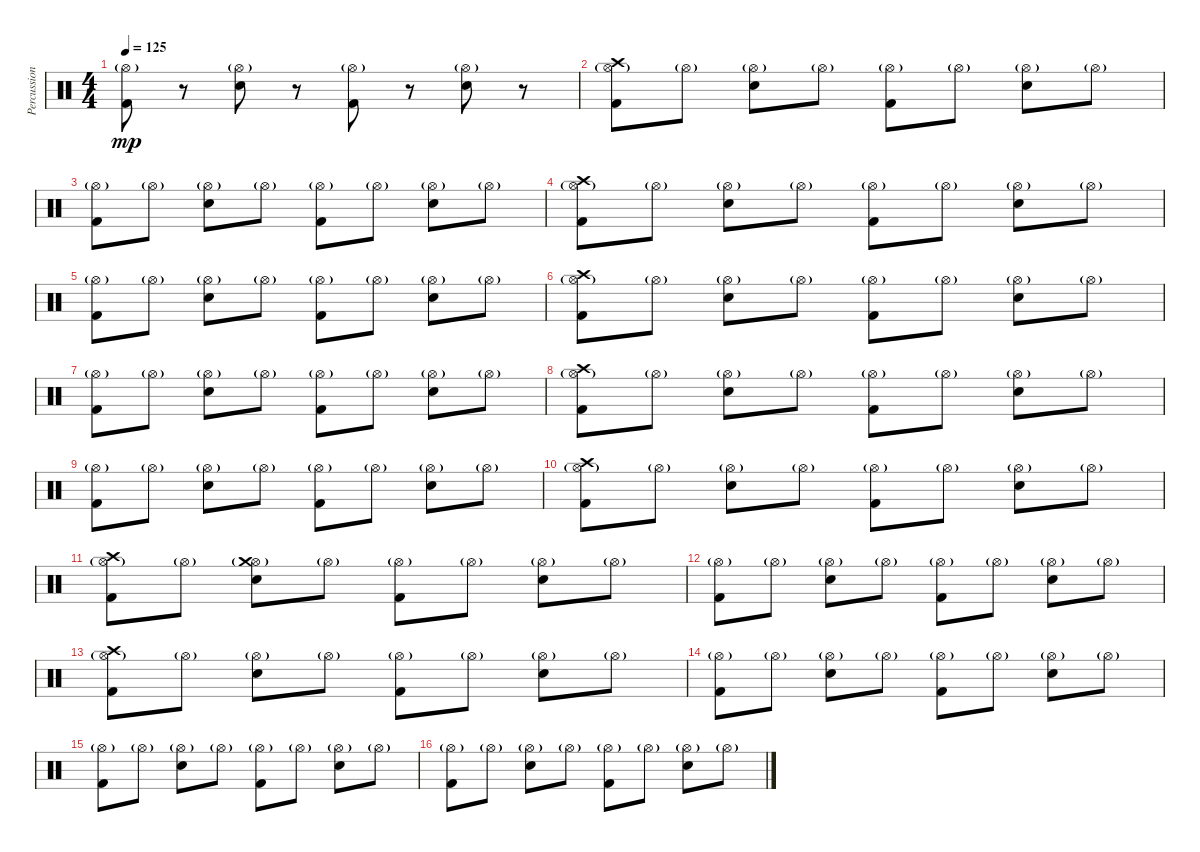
\track ("Percussions" "Percussion") {instrument percussion}
\staff {score}
\articulation defaults
\ts (4 4)
\tempo 125
\clef neutral
\ks c
("Hi-Hat (open)"{g} "Kick (hit) 2").8{dy mp} r.8 ("Hi-Hat (open)"{g} "Snare (hit) 2").8 r.8 ("Hi-Hat (open)"{g} "Kick (hit) 2").8 r.8 ("Hi-Hat (open)"{g} "Snare (hit) 2").8 r.8 |
("Hi-Hat (open)"{g} "Crash high (hit)" "Kick (hit) 2").8 "Hi-Hat (open)"{g}.8 ("Hi-Hat (open)"{g} "Snare (hit) 2").8 "Hi-Hat (open)"{g}.8 ("Hi-Hat (open)"{g} "Kick (hit) 2").8 "Hi-Hat (open)"{g}.8 ("Hi-Hat (open)"{g} "Snare (hit) 2").8 "Hi-Hat (open)"{g}.8 |
("Hi-Hat (open)"{g} "Kick (hit) 2").8 "Hi-Hat (open)"{g}.8 ("Hi-Hat (open)"{g} "Snare (hit) 2").8 "Hi-Hat (open)"{g}.8 ("Hi-Hat (open)"{g} "Kick (hit) 2").8 "Hi-Hat (open)"{g}.8 ("Hi-Hat (open)"{g} "Snare (hit) 2").8 "Hi-Hat (open)"{g}.8 |
("Hi-Hat (open)"{g} "Crash high (hit)" "Kick (hit) 2").8 "Hi-Hat (open)"{g}.8 ("Hi-Hat (open)"{g} "Snare (hit) 2").8 "Hi-Hat (open)"{g}.8 ("Hi-Hat (open)"{g} "Kick (hit) 2").8 "Hi-Hat (open)"{g}.8 ("Hi-Hat (open)"{g} "Snare (hit) 2").8 "Hi-Hat (open)"{g}.8 |
("Hi-Hat (open)"{g} "Kick (hit) 2").8 "Hi-Hat (open)"{g}.8 ("Hi-Hat (open)"{g} "Snare (hit) 2").8 "Hi-Hat (open)"{g}.8 ("Hi-Hat (open)"{g} "Kick (hit) 2").8 "Hi-Hat (open)"{g}.8 ("Hi-Hat (open)"{g} "Snare (hit) 2").8 "Hi-Hat (open)"{g}.8 |
("Hi-Hat (open)"{g} "Crash high (hit)" "Kick (hit) 2").8 "Hi-Hat (open)"{g}.8 ("Hi-Hat (open)"{g} "Snare (hit) 2").8 "Hi-Hat (open)"{g}.8 ("Hi-Hat (open)"{g} "Kick (hit) 2").8 "Hi-Hat (open)"{g}.8 ("Hi-Hat (open)"{g} "Snare (hit) 2").8 "Hi-Hat (open)"{g}.8 |
("Hi-Hat (open)"{g} "Kick (hit) 2").8 "Hi-Hat (open)"{g}.8 ("Hi-Hat (open)"{g} "Snare (hit) 2").8 "Hi-Hat (open)"{g}.8 ("Hi-Hat (open)"{g} "Kick (hit) 2").8 "Hi-Hat (open)"{g}.8 ("Hi-Hat (open)"{g} "Snare (hit) 2").8 "Hi-Hat (open)"{g}.8 |
("Hi-Hat (open)"{g} "Crash high (hit)" "Kick (hit) 2").8 "Hi-Hat (open)"{g}.8 ("Hi-Hat (open)"{g} "Snare (hit) 2").8 "Hi-Hat (open)"{g}.8 ("Hi-Hat (open)"{g} "Kick (hit) 2").8 "Hi-Hat (open)"{g}.8 ("Hi-Hat (open)"{g} "Snare (hit) 2").8 "Hi-Hat (open)"{g}.8 |
("Hi-Hat (open)"{g} "Kick (hit) 2").8 "Hi-Hat (open)"{g}.8 ("Hi-Hat (open)"{g} "Snare (hit) 2").8 "Hi-Hat (open)"{g}.8 ("Hi-Hat (open)"{g} "Kick (hit) 2").8 "Hi-Hat (open)"{g}.8 ("Hi-Hat (open)"{g} "Snare (hit) 2").8 "Hi-Hat (open)"{g}.8 |
("Hi-Hat (open)"{g} "Crash high (hit)" "Kick (hit) 2").8 "Hi-Hat (open)"{g}.8 ("Hi-Hat (open)"{g} "Snare (hit) 2").8 "Hi-Hat (open)"{g}.8 ("Hi-Hat (open)"{g} "Kick (hit) 2").8 "Hi-Hat (open)"{g}.8 ("Hi-Hat (open)"{g} "Snare (hit) 2").8 "Hi-Hat (open)"{g}.8 |
("Hi-Hat (open)"{g} "Crash high (hit)" "Kick (hit) 2").8 "Hi-Hat (open)"{g}.8 ("Hi-Hat (open)"{g} "Crash medium (hit)" "Snare (hit) 2").8 "Hi-Hat (open)"{g}.8 ("Hi-Hat (open)"{g} "Kick (hit) 2").8 "Hi-Hat (open)"{g}.8 ("Hi-Hat (open)"{g} "Snare (hit) 2").8 "Hi-Hat (open)"{g}.8 |
("Hi-Hat (open)"{g} "Kick (hit) 2").8 "Hi-Hat (open)"{g}.8 ("Hi-Hat (open)"{g} "Snare (hit) 2").8 "Hi-Hat (open)"{g}.8 ("Hi-Hat (open)"{g} "Kick (hit) 2").8 "Hi-Hat (open)"{g}.8 ("Hi-Hat (open)"{g} "Snare (hit) 2").8 "Hi-Hat (open)"{g}.8 |
("Hi-Hat (open)"{g} "Crash high (hit)" "Kick (hit) 2").8 "Hi-Hat (open)"{g}.8 ("Hi-Hat (open)"{g} "Snare (hit) 2").8 "Hi-Hat (open)"{g}.8 ("Hi-Hat (open)"{g} "Kick (hit) 2").8 "Hi-Hat (open)"{g}.8 ("Hi-Hat (open)"{g} "Snare (hit) 2").8 "Hi-Hat (open)"{g}.8 |
("Hi-Hat (open)"{g} "Kick (hit) 2").8 "Hi-Hat (open)"{g}.8 ("Hi-Hat (open)"{g} "Snare (hit) 2").8 "Hi-Hat (open)"{g}.8 ("Hi-Hat (open)"{g} "Kick (hit) 2").8 "Hi-Hat (open)"{g}.8 ("Hi-Hat (open)"{g} "Snare (hit) 2").8 "Hi-Hat (open)"{g}.8 |
("Hi-Hat (open)"{g} "Kick (hit) 2").8 "Hi-Hat (open)"{g}.8 ("Hi-Hat (open)"{g} "Snare (hit) 2").8 "Hi-Hat (open)"{g}.8 ("Hi-Hat (open)"{g} "Kick (hit) 2").8 "Hi-Hat (open)"{g}.8 ("Hi-Hat (open)"{g} "Snare (hit) 2").8 "Hi-Hat (open)"{g}.8 |
("Hi-Hat (open)"{g} "Kick (hit) 2").8 "Hi-Hat (open)"{g}.8 ("Hi-Hat (open)"{g} "Snare (hit) 2").8 "Hi-Hat (open)"{g}.8 ("Hi-Hat (open)"{g} "Kick (hit) 2").8 "Hi-Hat (open)"{g}.8 ("Hi-Hat (open)"{g} "Snare (hit) 2").8 "Hi-Hat (open)"{g}.8
